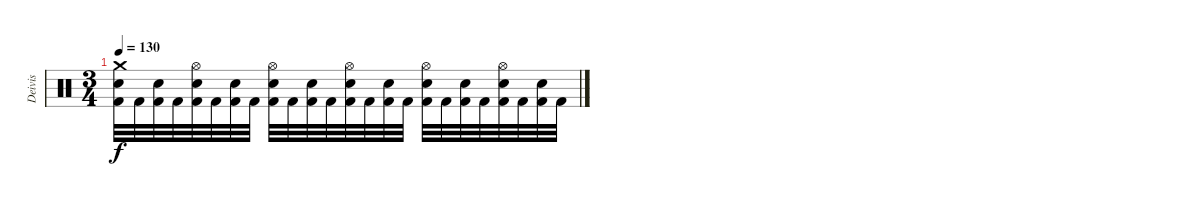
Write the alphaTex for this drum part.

\track ("Deivis" "Deivis") {instrument percussion}
\staff {score}
\articulation defaults
\ts (3 4)
\tempo 130
\clef neutral
\ks c
("Crash medium (hit)" "Electric Snare (hit)" "Kick (hit) 2").32{dy f} "Kick (hit) 2".32 ("Electric Snare (hit)" "Kick (hit) 2").32 "Kick (hit) 2".32 ("Hi-Hat (open)" "Electric Snare (hit)" "Kick (hit) 2").32 "Kick (hit) 2".32 ("Electric Snare (hit)" "Kick (hit) 2").32 "Kick (hit) 2".32 ("Hi-Hat (open)" "Electric Snare (hit)" "Kick (hit) 2").32 "Kick (hit) 2".32 ("Electric Snare (hit)" "Kick (hit) 2").32 "Kick (hit) 2".32 ("Hi-Hat (open)" "Electric Snare (hit)" "Kick (hit) 2").32 "Kick (hit) 2".32 ("Electric Snare (hit)" "Kick (hit) 2").32 "Kick (hit) 2".32 ("Hi-Hat (open)" "Electric Snare (hit)" "Kick (hit) 2").32 "Kick (hit) 2".32 ("Electric Snare (hit)" "Kick (hit) 2").32 "Kick (hit) 2".32 ("Hi-Hat (open)" "Electric Snare (hit)" "Kick (hit) 2").32 "Kick (hit) 2".32 ("Electric Snare (hit)" "Kick (hit) 2").32 "Kick (hit) 2".32
